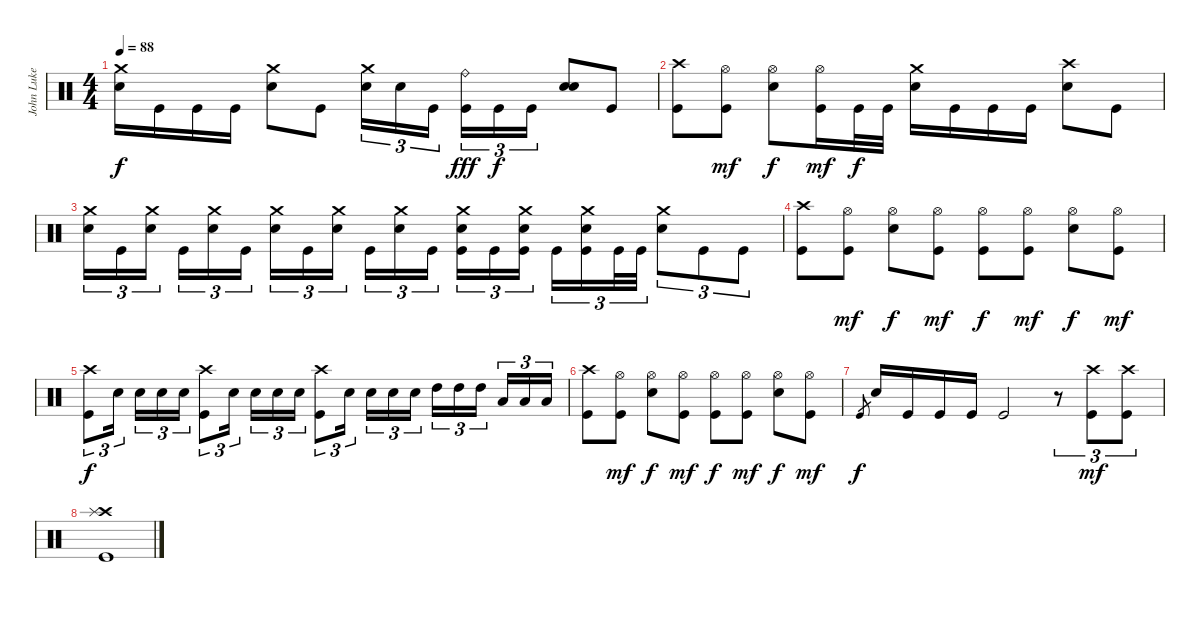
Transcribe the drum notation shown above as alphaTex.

\track ("John Luke (Drums)" "John Luke ") {instrument percussion}
\staff {score}
\articulation defaults
\ts (4 4)
\tempo 88
\clef neutral
\ks c
("Crash medium (hit)" "Electric Snare (hit)").16{dy f} "Kick (hit)".16 "Kick (hit)".16 "Kick (hit)".16 ("Crash medium (hit)" "Electric Snare (hit)").8 "Kick (hit)".8 ("Crash medium (hit)" "Electric Snare (hit)").16{tu (3 2)} "Electric Snare (hit)".16{tu (3 2)} "Kick (hit)".16{tu (3 2)} ("Ride (bell)" "Kick (hit)").16{tu (3 2) dy fff} "Kick (hit)".16{tu (3 2) dy f} "Kick (hit)".16{tu (3 2)} ("Electric Snare (hit)" "Electric Snare (hit)").8{bd 120} "Kick (hit)".8 |
("Crash high (hit)" "Kick (hit)").8 ("Hi-Hat (open)" "Kick (hit)").8{dy mf} ("Hi-Hat (open)" "Electric Snare (hit)").8{dy f} ("Hi-Hat (open)" "Kick (hit)").16{dy mf} "Kick (hit)".32{dy f} "Kick (hit)".32 ("Crash medium (hit)" "Electric Snare (hit)").16 "Kick (hit)".16 "Kick (hit)".16 "Kick (hit)".16 ("Crash high (hit)" "Electric Snare (hit)").8 "Kick (hit)".8 |
("Crash medium (hit)" "Electric Snare (hit)").16{tu (3 2)} "Kick (hit)".16{tu (3 2)} ("Crash medium (hit)" "Electric Snare (hit)").16{tu (3 2)} "Kick (hit)".16{tu (3 2)} ("Crash medium (hit)" "Electric Snare (hit)").16{tu (3 2)} "Kick (hit)".16{tu (3 2)} ("Crash medium (hit)" "Electric Snare (hit)").16{tu (3 2)} "Kick (hit)".16{tu (3 2)} ("Crash medium (hit)" "Electric Snare (hit)").16{tu (3 2)} "Kick (hit)".16{tu (3 2)} ("Crash medium (hit)" "Electric Snare (hit)").16{tu (3 2)} "Kick (hit)".16{tu (3 2)} ("Crash medium (hit)" "Electric Snare (hit)" "Kick (hit)").16{tu (3 2)} "Kick (hit)".16{tu (3 2)} ("Crash medium (hit)" "Electric Snare (hit)" "Kick (hit)").16{tu (3 2)} "Kick (hit)".16{tu (3 2)} ("Crash medium (hit)" "Electric Snare (hit)" "Kick (hit)").16{tu (3 2)} "Kick (hit)".32{tu (3 2)} "Kick (hit)".32{tu (3 2)} ("Crash medium (hit)" "Electric Snare (hit)").8{tu (3 2)} "Kick (hit)".8{tu (3 2)} "Kick (hit)".8{tu (3 2)} |
("Crash high (hit)" "Kick (hit)").8 ("Hi-Hat (open)" "Kick (hit)").8{dy mf} ("Hi-Hat (open)" "Electric Snare (hit)").8{dy f} ("Hi-Hat (open)" "Kick (hit)").8{dy mf} ("Hi-Hat (open)" "Kick (hit)").8{dy f} ("Hi-Hat (open)" "Kick (hit)").8{dy mf} ("Hi-Hat (open)" "Electric Snare (hit)").8{dy f} ("Hi-Hat (open)" "Kick (hit)").8{dy mf} |
("Crash high (hit)" "Kick (hit)").8{tu (3 2) dy f} "Electric Snare (hit)".16{tu (3 2)} "Electric Snare (hit)".16{tu (3 2)} "Electric Snare (hit)".16{tu (3 2)} "Electric Snare (hit)".16{tu (3 2)} ("Crash high (hit)" "Kick (hit)").8{tu (3 2)} "Electric Snare (hit)".16{tu (3 2)} "Electric Snare (hit)".16{tu (3 2)} "Electric Snare (hit)".16{tu (3 2)} "Electric Snare (hit)".16{tu (3 2)} ("Crash high (hit)" "Kick (hit)").8{tu (3 2)} "Electric Snare (hit)".16{tu (3 2)} "Electric Snare (hit)".16{tu (3 2)} "Electric Snare (hit)".16{tu (3 2)} "Electric Snare (hit)".16{tu (3 2)} "High Tom (hit)".16{tu (3 2)} "High Tom (hit)".16{tu (3 2)} "High Tom (hit)".16{tu (3 2)} "Low Tom (hit)".16{tu (3 2)} "Low Tom (hit)".16{tu (3 2)} "Low Tom (hit)".16{tu (3 2)} |
("Crash high (hit)" "Kick (hit)").8 ("Hi-Hat (open)" "Kick (hit)").8{dy mf} ("Hi-Hat (open)" "Electric Snare (hit)").8{dy f} ("Hi-Hat (open)" "Kick (hit)").8{dy mf} ("Hi-Hat (open)" "Kick (hit)").8{dy f} ("Hi-Hat (open)" "Kick (hit)").8{dy mf} ("Hi-Hat (open)" "Electric Snare (hit)").8{dy f} ("Hi-Hat (open)" "Kick (hit)").8{dy mf} |
"Kick (hit)".8{gr dy f} "Electric Snare (hit)".16 "Kick (hit)".16 "Kick (hit)".16 "Kick (hit)".16 "Kick (hit)".2 r.8{tu (3 2)} ("Crash high (hit)" "Kick (hit)").8{tu (3 2) dy mf} ("Crash high (hit)" "Kick (hit)").8{tu (3 2)} |
("Crash high (hit)" "Splash (hit)" "Kick (hit)").1
